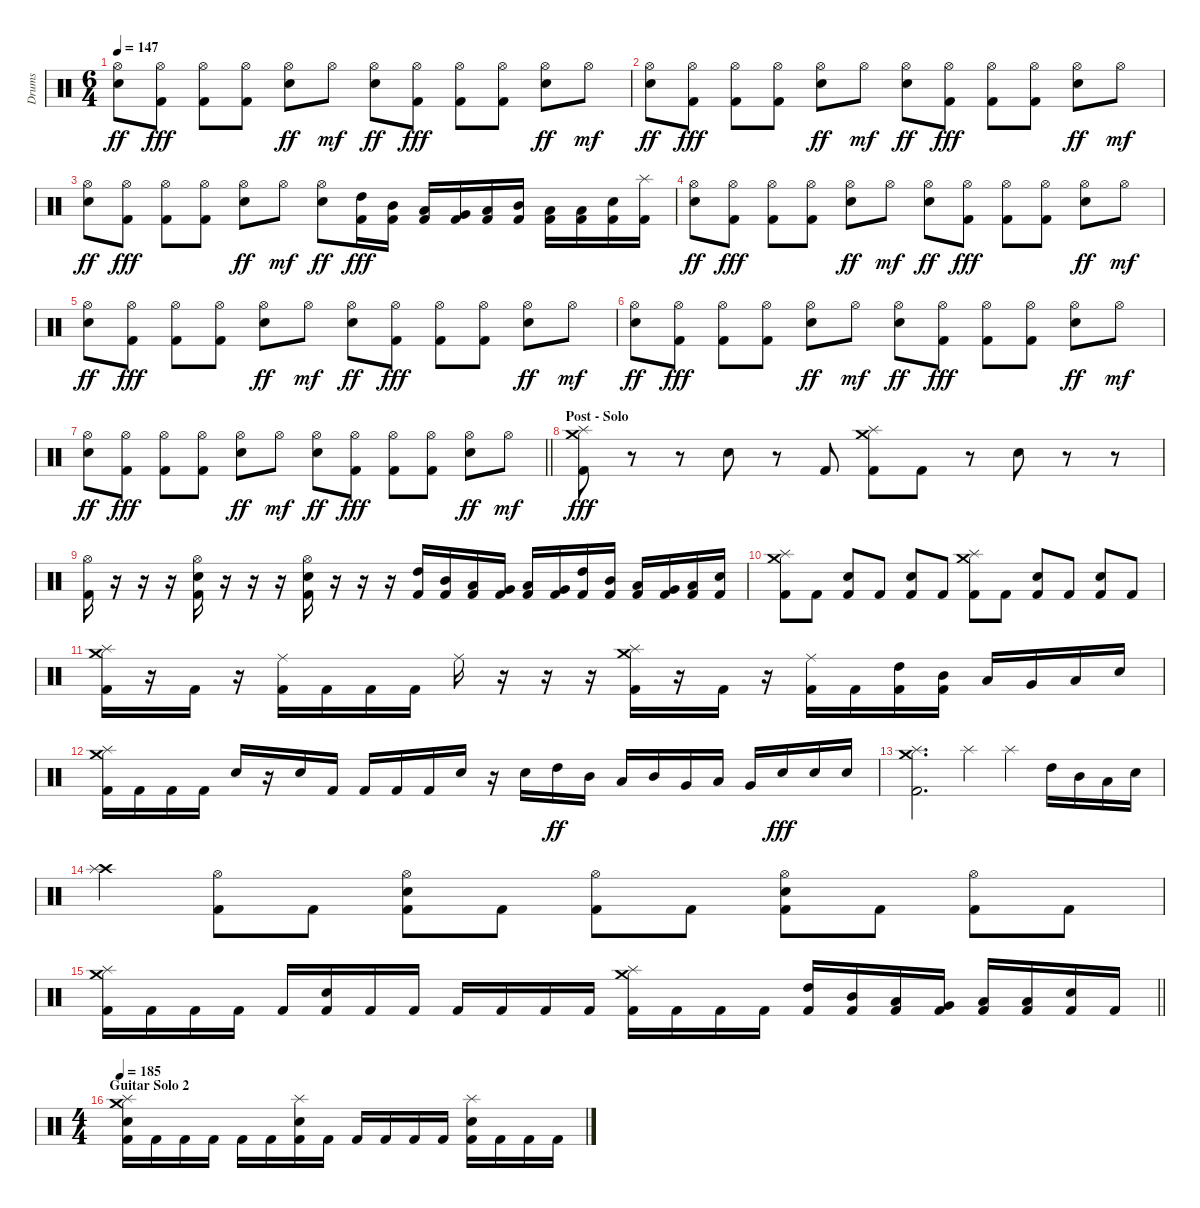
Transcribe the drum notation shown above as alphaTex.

\track ("Drums" "Drums") {instrument percussion}
\staff {score}
\articulation defaults
\ts (6 4)
\tempo 147
\clef neutral
\ks c
("Hi-Hat (open)" "Electric Snare (hit)").8{dy ff} ("Hi-Hat (open)" "Kick (hit) 2").8{dy fff} ("Hi-Hat (open)" "Kick (hit) 2").8 ("Hi-Hat (open)" "Kick (hit) 2").8 ("Hi-Hat (open)" "Electric Snare (hit)").8{dy ff} "Hi-Hat (open)".8{dy mf} ("Hi-Hat (open)" "Electric Snare (hit)").8{dy ff} ("Hi-Hat (open)" "Kick (hit) 2").8{dy fff} ("Hi-Hat (open)" "Kick (hit) 2").8 ("Hi-Hat (open)" "Kick (hit) 2").8 ("Hi-Hat (open)" "Electric Snare (hit)").8{dy ff} "Hi-Hat (open)".8{dy mf} |
("Hi-Hat (open)" "Electric Snare (hit)").8{dy ff} ("Hi-Hat (open)" "Kick (hit) 2").8{dy fff} ("Hi-Hat (open)" "Kick (hit) 2").8 ("Hi-Hat (open)" "Kick (hit) 2").8 ("Hi-Hat (open)" "Electric Snare (hit)").8{dy ff} "Hi-Hat (open)".8{dy mf} ("Hi-Hat (open)" "Electric Snare (hit)").8{dy ff} ("Hi-Hat (open)" "Kick (hit) 2").8{dy fff} ("Hi-Hat (open)" "Kick (hit) 2").8 ("Hi-Hat (open)" "Kick (hit) 2").8 ("Hi-Hat (open)" "Electric Snare (hit)").8{dy ff} "Hi-Hat (open)".8{dy mf} |
("Hi-Hat (open)" "Electric Snare (hit)").8{dy ff} ("Hi-Hat (open)" "Kick (hit) 2").8{dy fff} ("Hi-Hat (open)" "Kick (hit) 2").8 ("Hi-Hat (open)" "Kick (hit) 2").8 ("Hi-Hat (open)" "Electric Snare (hit)").8{dy ff} "Hi-Hat (open)".8{dy mf} ("Hi-Hat (open)" "Electric Snare (hit)").8{dy ff} ("High Tom (hit)" "Kick (hit) 2").16{dy fff} ("Mid Tom (hit)" "Kick (hit) 2").16 ("Low Tom (hit)" "Kick (hit) 2").16 ("Very Low Tom (hit)" "Kick (hit) 2").16 ("Low Floor Tom (hit)" "Kick (hit) 2").16 ("Mid Tom (hit)" "Kick (hit) 2").16 ("Low Tom (hit)" "Kick (hit) 2").16 ("Low Floor Tom (hit)" "Kick (hit) 2").16 ("Electric Snare (hit)" "Kick (hit) 2").16 ("Splash (hit)" "Kick (hit) 2").16 |
("Hi-Hat (open)" "Electric Snare (hit)").8{dy ff} ("Hi-Hat (open)" "Kick (hit) 2").8{dy fff} ("Hi-Hat (open)" "Kick (hit) 2").8 ("Hi-Hat (open)" "Kick (hit) 2").8 ("Hi-Hat (open)" "Electric Snare (hit)").8{dy ff} "Hi-Hat (open)".8{dy mf} ("Hi-Hat (open)" "Electric Snare (hit)").8{dy ff} ("Hi-Hat (open)" "Kick (hit) 2").8{dy fff} ("Hi-Hat (open)" "Kick (hit) 2").8 ("Hi-Hat (open)" "Kick (hit) 2").8 ("Hi-Hat (open)" "Electric Snare (hit)").8{dy ff} "Hi-Hat (open)".8{dy mf} |
("Hi-Hat (open)" "Electric Snare (hit)").8{dy ff} ("Hi-Hat (open)" "Kick (hit) 2").8{dy fff} ("Hi-Hat (open)" "Kick (hit) 2").8 ("Hi-Hat (open)" "Kick (hit) 2").8 ("Hi-Hat (open)" "Electric Snare (hit)").8{dy ff} "Hi-Hat (open)".8{dy mf} ("Hi-Hat (open)" "Electric Snare (hit)").8{dy ff} ("Hi-Hat (open)" "Kick (hit) 2").8{dy fff} ("Hi-Hat (open)" "Kick (hit) 2").8 ("Hi-Hat (open)" "Kick (hit) 2").8 ("Hi-Hat (open)" "Electric Snare (hit)").8{dy ff} "Hi-Hat (open)".8{dy mf} |
("Hi-Hat (open)" "Electric Snare (hit)").8{dy ff} ("Hi-Hat (open)" "Kick (hit) 2").8{dy fff} ("Hi-Hat (open)" "Kick (hit) 2").8 ("Hi-Hat (open)" "Kick (hit) 2").8 ("Hi-Hat (open)" "Electric Snare (hit)").8{dy ff} "Hi-Hat (open)".8{dy mf} ("Hi-Hat (open)" "Electric Snare (hit)").8{dy ff} ("Hi-Hat (open)" "Kick (hit) 2").8{dy fff} ("Hi-Hat (open)" "Kick (hit) 2").8 ("Hi-Hat (open)" "Kick (hit) 2").8 ("Hi-Hat (open)" "Electric Snare (hit)").8{dy ff} "Hi-Hat (open)".8{dy mf} |
\barLineRight lightlight
("Hi-Hat (open)" "Electric Snare (hit)").8{dy ff} ("Hi-Hat (open)" "Kick (hit) 2").8{dy fff} ("Hi-Hat (open)" "Kick (hit) 2").8 ("Hi-Hat (open)" "Kick (hit) 2").8 ("Hi-Hat (open)" "Electric Snare (hit)").8{dy ff} "Hi-Hat (open)".8{dy mf} ("Hi-Hat (open)" "Electric Snare (hit)").8{dy ff} ("Hi-Hat (open)" "Kick (hit) 2").8{dy fff} ("Hi-Hat (open)" "Kick (hit) 2").8 ("Hi-Hat (open)" "Kick (hit) 2").8 ("Hi-Hat (open)" "Electric Snare (hit)").8{dy ff} "Hi-Hat (open)".8{dy mf} |
\section ("" "Post - Solo")
("Crash medium (hit)" "Splash (hit)" "Kick (hit) 2").8{dy fff} r.8 r.8 "Electric Snare (hit)".8 r.8 "Kick (hit) 2".8 ("Crash medium (hit)" "Splash (hit)" "Kick (hit) 2").8 "Kick (hit) 2".8 r.8 "Electric Snare (hit)".8 r.8 r.8 |
("Hi-Hat (open)" "Kick (hit) 2").16 r.16 r.16 r.16 ("Hi-Hat (open)" "Electric Snare (hit)" "Kick (hit) 2").16 r.16 r.16 r.16 ("Hi-Hat (open)" "Electric Snare (hit)" "Kick (hit) 2").16 r.16 r.16 r.16 ("High Tom (hit)" "Kick (hit) 2").16 ("Mid Tom (hit)" "Kick (hit) 2").16 ("Low Tom (hit)" "Kick (hit) 2").16 ("Very Low Tom (hit)" "Kick (hit) 2").16 ("Low Floor Tom (hit)" "Kick (hit) 2").16 ("Very Low Tom (hit)" "Kick (hit) 2").16 ("High Tom (hit)" "Kick (hit) 2").16 ("Mid Tom (hit)" "Kick (hit) 2").16 ("Low Tom (hit)" "Kick (hit) 2").16 ("Very Low Tom (hit)" "Kick (hit) 2").16 ("Low Floor Tom (hit)" "Kick (hit) 2").16 ("Electric Snare (hit)" "Kick (hit) 2").16 |
("Crash medium (hit)" "Splash (hit)" "Kick (hit) 2").8 "Kick (hit) 2".8 ("Electric Snare (hit)" "Kick (hit) 2").8 "Kick (hit) 2".8 ("Electric Snare (hit)" "Kick (hit) 2").8 "Kick (hit) 2".8 ("Crash medium (hit)" "Splash (hit)" "Kick (hit) 2").8 "Kick (hit) 2".8 ("Electric Snare (hit)" "Kick (hit) 2").8 "Kick (hit) 2".8 ("Electric Snare (hit)" "Kick (hit) 2").8 "Kick (hit) 2".8 |
("Crash medium (hit)" "Splash (hit)" "Kick (hit) 2").16 r.16 "Kick (hit) 2".16 r.16 ("Ride (middle)" "Kick (hit) 2").16 "Kick (hit) 2".16 "Kick (hit) 2".16 "Kick (hit) 2".16 "Ride (middle)".16 r.16 r.16 r.16 ("Crash medium (hit)" "Splash (hit)" "Kick (hit) 2").16 r.16 "Kick (hit) 2".16 r.16 ("Ride (middle)" "Kick (hit) 2").16 "Kick (hit) 2".16 ("High Tom (hit)" "Kick (hit) 2").16 ("Mid Tom (hit)" "Kick (hit) 2").16 "Low Tom (hit)".16 "Very Low Tom (hit)".16 "Low Floor Tom (hit)".16 "Electric Snare (hit)".16 |
("Crash medium (hit)" "Splash (hit)" "Kick (hit) 2").16 "Kick (hit) 2".16 "Kick (hit) 2".16 "Kick (hit) 2".16 "Electric Snare (hit)".16 r.16 "Electric Snare (hit)".16 "Kick (hit) 2".16 "Kick (hit) 2".16 "Kick (hit) 2".16 "Kick (hit) 2".16 "Electric Snare (hit)".16 r.16 "Electric Snare (hit)".16 "High Tom (hit)".16{dy ff} "Mid Tom (hit)".16 "Low Tom (hit)".16 "Mid Tom (hit)".16 "Very Low Tom (hit)".16 "Low Floor Tom (hit)".16 "Very Low Tom (hit)".16 "Electric Snare (hit)".16{dy fff} "Electric Snare (hit)".16 "Electric Snare (hit)".16 |
("Crash medium (hit)" "Splash (hit)" "Kick (hit) 2").2{d} "Splash (hit)".4 "Splash (hit)".4 "High Tom (hit)".16 "Mid Tom (hit)".16 "Low Tom (hit)".16 "Electric Snare (hit)".16 |
("Crash high (hit)" "Splash (hit)").4 ("Hi-Hat (open)" "Kick (hit) 2").8 "Kick (hit) 2".8 ("Hi-Hat (open)" "Electric Snare (hit)" "Kick (hit) 2").8 "Kick (hit) 2".8 ("Hi-Hat (open)" "Kick (hit) 2").8 "Kick (hit) 2".8 ("Hi-Hat (open)" "Electric Snare (hit)" "Kick (hit) 2").8 "Kick (hit) 2".8 ("Hi-Hat (open)" "Kick (hit) 2").8 "Kick (hit) 2".8 |
\barLineRight lightlight
("Crash medium (hit)" "Splash (hit)" "Kick (hit) 2").16 "Kick (hit) 2".16 "Kick (hit) 2".16 "Kick (hit) 2".16 "Kick (hit) 2".16 ("Electric Snare (hit)" "Kick (hit) 2").16 "Kick (hit) 2".16 "Kick (hit) 2".16 "Kick (hit) 2".16 "Kick (hit) 2".16 "Kick (hit) 2".16 "Kick (hit) 2".16 ("Crash medium (hit)" "Splash (hit)" "Kick (hit) 2").16 "Kick (hit) 2".16 "Kick (hit) 2".16 "Kick (hit) 2".16 ("High Tom (hit)" "Kick (hit) 2").16 ("Mid Tom (hit)" "Kick (hit) 2").16 ("Low Tom (hit)" "Kick (hit) 2").16 ("Very Low Tom (hit)" "Kick (hit) 2").16 ("Low Floor Tom (hit)" "Kick (hit) 2").16 ("Low Tom (hit)" "Kick (hit) 2").16 ("Electric Snare (hit)" "Kick (hit) 2").16 "Kick (hit) 2".16 |
\ts (4 4)
\section ("" "Guitar Solo 2")
\tempo 185
("Crash medium (hit)" "Splash (hit)" "Electric Snare (hit)" "Kick (hit) 2").16 "Kick (hit) 2".16 "Kick (hit) 2".16 "Kick (hit) 2".16 "Kick (hit) 2".16 "Kick (hit) 2".16 ("Splash (hit)" "Electric Snare (hit)" "Kick (hit) 2").16 "Kick (hit) 2".16 "Kick (hit) 2".16 "Kick (hit) 2".16 "Kick (hit) 2".16 "Kick (hit) 2".16 ("Splash (hit)" "Electric Snare (hit)" "Kick (hit) 2").16 "Kick (hit) 2".16 "Kick (hit) 2".16 "Kick (hit) 2".16
